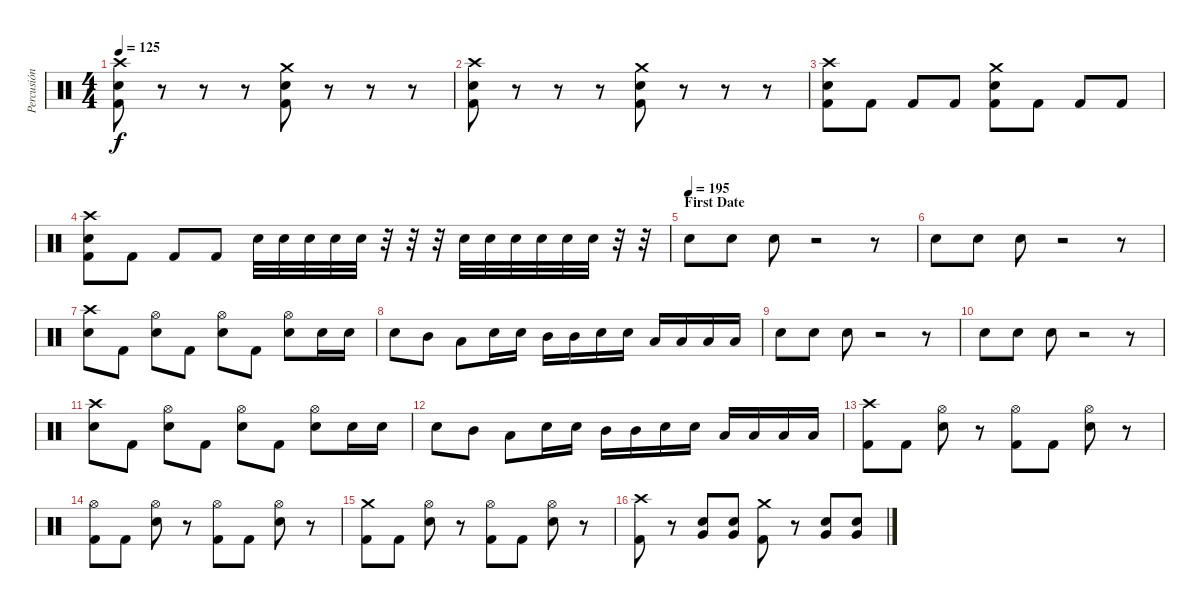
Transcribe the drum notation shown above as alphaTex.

\track ("Percusión" "Percusión") {instrument percussion}
\staff {score}
\articulation defaults
\ts (4 4)
\tempo 125
\clef neutral
\ks c
("Crash high (hit)" "Electric Snare (hit)" "Kick (hit) 2").8{dy f} r.8 r.8 r.8 ("Crash medium (hit)" "Electric Snare (hit)" "Kick (hit) 2").8 r.8 r.8 r.8 |
("Crash high (hit)" "Electric Snare (hit)" "Kick (hit) 2").8 r.8 r.8 r.8 ("Crash medium (hit)" "Electric Snare (hit)" "Kick (hit) 2").8 r.8 r.8 r.8 |
("Crash high (hit)" "Electric Snare (hit)" "Kick (hit) 2").8 "Kick (hit) 2".8 "Kick (hit) 2".8 "Kick (hit) 2".8 ("Crash medium (hit)" "Electric Snare (hit)" "Kick (hit) 2").8 "Kick (hit) 2".8 "Kick (hit) 2".8 "Kick (hit) 2".8 |
("Crash high (hit)" "Electric Snare (hit)" "Kick (hit) 2").8 "Kick (hit) 2".8 "Kick (hit) 2".8 "Kick (hit) 2".8 "Electric Snare (hit)".32 "Electric Snare (hit)".32 "Electric Snare (hit)".32 "Electric Snare (hit)".32 "Electric Snare (hit)".32 r.32 r.32 r.32 "Electric Snare (hit)".32 "Electric Snare (hit)".32 "Electric Snare (hit)".32 "Electric Snare (hit)".32 "Electric Snare (hit)".32 "Electric Snare (hit)".32 r.32 r.32 |
\section ("" "First Date")
\tempo (195)
"Electric Snare (hit)".8 "Electric Snare (hit)".8 "Electric Snare (hit)".8 r.2 r.8 |
"Electric Snare (hit)".8 "Electric Snare (hit)".8 "Electric Snare (hit)".8 r.2 r.8 |
("Crash high (hit)" "Electric Snare (hit)").8 "Kick (hit) 2".8 ("Hi-Hat (open)" "Electric Snare (hit)").8 "Kick (hit) 2".8 ("Hi-Hat (open)" "Electric Snare (hit)").8 "Kick (hit) 2".8 ("Hi-Hat (open)" "Electric Snare (hit)").8 "Electric Snare (hit)".16 "Electric Snare (hit)".16 |
"Electric Snare (hit)".8 "Mid Tom (hit)".8 "Low Tom (hit)".8 "Electric Snare (hit)".16 "Electric Snare (hit)".16 "Mid Tom (hit)".16 "Mid Tom (hit)".16 "Electric Snare (hit)".16 "Electric Snare (hit)".16 "Low Tom (hit)".16 "Low Tom (hit)".16 "Low Tom (hit)".16 "Low Tom (hit)".16 |
"Electric Snare (hit)".8 "Electric Snare (hit)".8 "Electric Snare (hit)".8 r.2 r.8 |
"Electric Snare (hit)".8 "Electric Snare (hit)".8 "Electric Snare (hit)".8 r.2 r.8 |
("Crash high (hit)" "Electric Snare (hit)").8 "Kick (hit) 2".8 ("Hi-Hat (open)" "Electric Snare (hit)").8 "Kick (hit) 2".8 ("Hi-Hat (open)" "Electric Snare (hit)").8 "Kick (hit) 2".8 ("Hi-Hat (open)" "Electric Snare (hit)").8 "Electric Snare (hit)".16 "Electric Snare (hit)".16 |
"Electric Snare (hit)".8 "Mid Tom (hit)".8 "Low Tom (hit)".8 "Electric Snare (hit)".16 "Electric Snare (hit)".16 "Mid Tom (hit)".16 "Mid Tom (hit)".16 "Electric Snare (hit)".16 "Electric Snare (hit)".16 "Low Tom (hit)".16 "Low Tom (hit)".16 "Low Tom (hit)".16 "Low Tom (hit)".16 |
("Crash high (hit)" "Kick (hit) 2").8 "Kick (hit) 2".8 ("Hi-Hat (open)" "Electric Snare (hit)").8 r.8 ("Hi-Hat (open)" "Kick (hit) 2").8 "Kick (hit) 2".8 ("Hi-Hat (open)" "Electric Snare (hit)").8 r.8 |
("Hi-Hat (open)" "Kick (hit) 2").8 "Kick (hit) 2".8 ("Hi-Hat (open)" "Electric Snare (hit)").8 r.8 ("Hi-Hat (open)" "Kick (hit) 2").8 "Kick (hit) 2".8 ("Hi-Hat (open)" "Electric Snare (hit)").8 r.8 |
("Crash medium (hit)" "Kick (hit) 2").8 "Kick (hit) 2".8 ("Hi-Hat (open)" "Electric Snare (hit)").8 r.8 ("Hi-Hat (open)" "Kick (hit) 2").8 "Kick (hit) 2".8 ("Hi-Hat (open)" "Electric Snare (hit)").8 r.8 |
("Crash high (hit)" "Kick (hit) 2").8 r.8 ("Very Low Tom (hit)" "Electric Snare (hit)").8 ("Very Low Tom (hit)" "Electric Snare (hit)").8 ("Crash medium (hit)" "Kick (hit) 2").8 r.8 ("Very Low Tom (hit)" "Electric Snare (hit)").8 ("Very Low Tom (hit)" "Electric Snare (hit)").8
